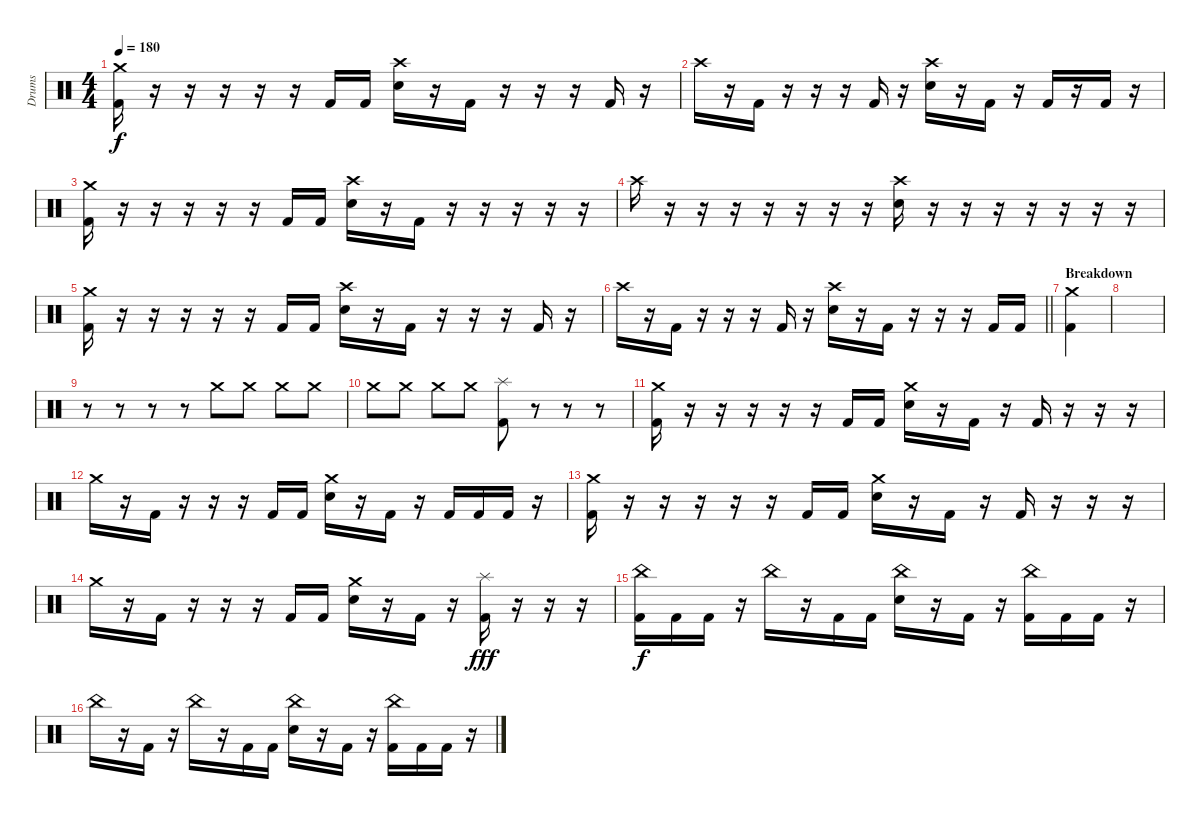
\track ("Drums" "Drums") {instrument percussion}
\staff {score}
\articulation defaults
\ts (4 4)
\tempo 180
\clef neutral
\ks c
("Crash medium (hit)" "Kick (hit) 2").16{dy f} r.16 r.16 r.16 r.16 r.16 "Kick (hit) 2".16 "Kick (hit) 2".16 ("Crash high (hit)" "Electric Snare (hit)").16 r.16 "Kick (hit) 2".16 r.16 r.16 r.16 "Kick (hit) 2".16 r.16 |
"Crash high (hit)".16 r.16 "Kick (hit) 2".16 r.16 r.16 r.16 "Kick (hit) 2".16 r.16 ("Crash high (hit)" "Electric Snare (hit)").16 r.16 "Kick (hit) 2".16 r.16 "Kick (hit) 2".16 r.16 "Kick (hit) 2".16 r.16 |
("Crash medium (hit)" "Kick (hit) 2").16 r.16 r.16 r.16 r.16 r.16 "Kick (hit) 2".16 "Kick (hit) 2".16 ("Crash high (hit)" "Electric Snare (hit)").16 r.16 "Kick (hit) 2".16 r.16 r.16 r.16 r.16 r.16 |
"Crash high (hit)".16 r.16 r.16 r.16 r.16 r.16 r.16 r.16 ("Crash high (hit)" "Electric Snare (hit)").16 r.16 r.16 r.16 r.16 r.16 r.16 r.16 |
("Crash medium (hit)" "Kick (hit) 2").16 r.16 r.16 r.16 r.16 r.16 "Kick (hit) 2".16 "Kick (hit) 2".16 ("Crash high (hit)" "Electric Snare (hit)").16 r.16 "Kick (hit) 2".16 r.16 r.16 r.16 "Kick (hit) 2".16 r.16 |
\barLineRight lightlight "Crash high (hit)".16
r.16 "Kick (hit) 2".16 r.16 r.16 r.16 "Kick (hit) 2".16 r.16 ("Crash high (hit)" "Electric Snare (hit)").16 r.16 "Kick (hit) 2".16 r.16 r.16 r.16 "Kick (hit) 2".16 "Kick (hit) 2".16 |
\section ("" "Breakdown")
("Crash medium (hit)" "Kick (hit) 2").4 |
|
r.8{volume 0} r.8 r.8 r.8 "Crash medium (hit)".8{volume 16} "Crash medium (hit)".8 "Crash medium (hit)".8 "Crash medium (hit)".8 |
"Crash medium (hit)".8 "Crash medium (hit)".8 "Crash medium (hit)".8 "Crash medium (hit)".8 ("Splash (hit)" "Kick (hit) 2").8 r.8 r.8 r.8 |
("Kick (hit) 2" "Crash medium (hit)").16 r.16 r.16 r.16 r.16 r.16 "Kick (hit) 2".16 "Kick (hit) 2".16 ("Electric Snare (hit)" "Crash medium (hit)").16 r.16 "Kick (hit) 2".16 r.16 "Kick (hit) 2".16 r.16 r.16 r.16 |
"Crash medium (hit)".16 r.16 "Kick (hit) 2".16 r.16 r.16 r.16 "Kick (hit) 2".16 "Kick (hit) 2".16 ("Electric Snare (hit)" "Crash medium (hit)").16 r.16 "Kick (hit) 2".16 r.16 "Kick (hit) 2".16 "Kick (hit) 2".16 "Kick (hit) 2".16 r.16 |
("Kick (hit) 2" "Crash medium (hit)").16 r.16 r.16 r.16 r.16 r.16 "Kick (hit) 2".16 "Kick (hit) 2".16 ("Electric Snare (hit)" "Crash medium (hit)").16 r.16 "Kick (hit) 2".16 r.16 "Kick (hit) 2".16 r.16 r.16 r.16 |
"Crash medium (hit)".16 r.16 "Kick (hit) 2".16 r.16 r.16 r.16 "Kick (hit) 2".16 "Kick (hit) 2".16 ("Electric Snare (hit)" "Crash medium (hit)").16 r.16 "Kick (hit) 2".16 r.16 ("Kick (hit) 2" "Splash (hit)").16{dy fff} r.16 r.16 r.16 |
("Kick (hit) 2" "China (hit)").16{dy f} "Kick (hit) 2".16 "Kick (hit) 2".16 r.16 "China (hit)".16 r.16 "Kick (hit) 2".16 "Kick (hit) 2".16 ("Electric Snare (hit)" "China (hit)").16 r.16 "Kick (hit) 2".16 r.16 ("Kick (hit) 2" "China (hit)").16 "Kick (hit) 2".16 "Kick (hit) 2".16 r.16 |
"China (hit)".16 r.16 "Kick (hit) 2".16 r.16 "China (hit)".16 r.16 "Kick (hit) 2".16 "Kick (hit) 2".16 ("Electric Snare (hit)" "China (hit)").16 r.16 "Kick (hit) 2".16 r.16 ("Kick (hit) 2" "China (hit)").16 "Kick (hit) 2".16 "Kick (hit) 2".16 r.16
